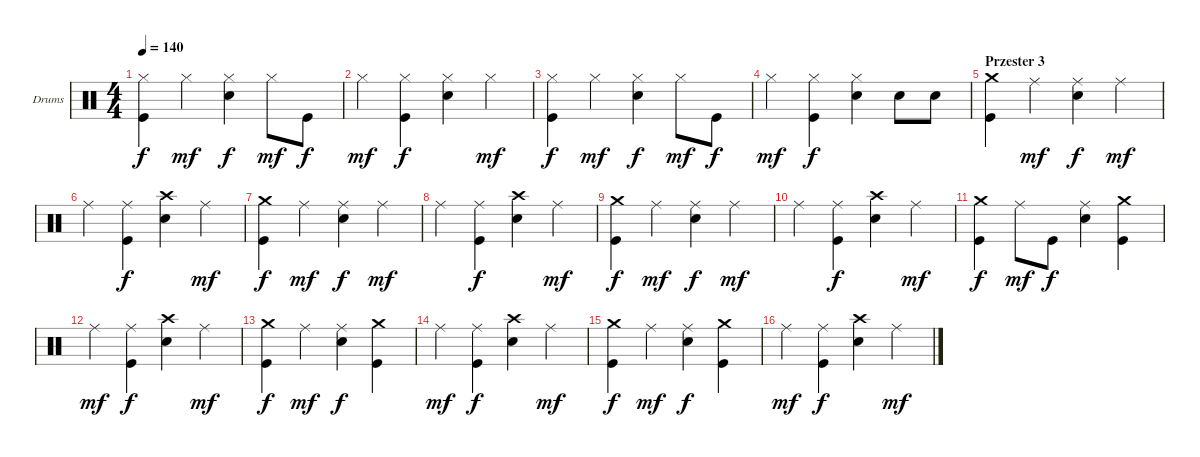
\bracketExtendMode groupsimilarinstruments
\firstSystemTrackNameOrientation horizontal
\otherSystemsTrackNameOrientation horizontal
\track ("Drumkit" "Drums") {instrument percussion}
\staff {score}
\articulation defaults
\ts (4 4)
\tempo 140
\clef neutral
\ks c
("Kick (hit)" "Hi-Hat (closed)").4{dy f} "Hi-Hat (closed)".4{dy mf} ("Snare (hit) 2" "Hi-Hat (closed)").4{dy f} "Hi-Hat (closed)".8{dy mf} "Kick (hit)".8{dy f} |
"Hi-Hat (closed)".4{dy mf} ("Kick (hit)" "Hi-Hat (closed)").4{dy f} ("Snare (hit) 2" "Hi-Hat (closed)").4 "Hi-Hat (closed)".4{dy mf} |
("Kick (hit)" "Hi-Hat (closed)").4{dy f} "Hi-Hat (closed)".4{dy mf} ("Snare (hit) 2" "Hi-Hat (closed)").4{dy f} "Hi-Hat (closed)".8{dy mf} "Kick (hit)".8{dy f} |
"Hi-Hat (closed)".4{dy mf} ("Kick (hit)" "Hi-Hat (closed)").4{dy f} ("Snare (hit) 2" "Hi-Hat (closed)").4 "Snare (hit) 2".8 "Snare (hit) 2".8 |
\section ("" "Przester 3")
("Kick (hit)" "Crash medium (hit)").4 "Ride (middle)".4{dy mf} ("Snare (hit) 2" "Ride (middle)").4{dy f} "Ride (middle)".4{dy mf} |
"Ride (middle)".4 ("Kick (hit)" "Ride (middle)").4{dy f} ("Snare (hit) 2" "Crash high (hit)").4 "Ride (middle)".4{dy mf} |
("Kick (hit)" "Crash medium (hit)").4{dy f} "Ride (middle)".4{dy mf} ("Snare (hit) 2" "Ride (middle)").4{dy f} "Ride (middle)".4{dy mf} |
"Ride (middle)".4 ("Kick (hit)" "Ride (middle)").4{dy f} ("Snare (hit) 2" "Crash high (hit)").4 "Ride (middle)".4{dy mf} |
("Kick (hit)" "Crash medium (hit)").4{dy f} "Ride (middle)".4{dy mf} ("Snare (hit) 2" "Ride (middle)").4{dy f} "Ride (middle)".4{dy mf} |
"Ride (middle)".4 ("Kick (hit)" "Ride (middle)").4{dy f} ("Snare (hit) 2" "Crash high (hit)").4 "Ride (middle)".4{dy mf} |
("Kick (hit)" "Crash medium (hit)").4{dy f} "Ride (middle)".8{dy mf} "Kick (hit)".8{dy f} ("Snare (hit) 2" "Ride (middle)").4 ("Kick (hit)" "Crash medium (hit)").4 |
"Ride (middle)".4{dy mf} ("Kick (hit)" "Ride (middle)").4{dy f} ("Snare (hit) 2" "Crash high (hit)").4 "Ride (middle)".4{dy mf} |
("Kick (hit)" "Crash medium (hit)").4{dy f} "Ride (middle)".4{dy mf} ("Snare (hit) 2" "Ride (middle)").4{dy f} ("Kick (hit)" "Crash medium (hit)").4 |
"Ride (middle)".4{dy mf} ("Kick (hit)" "Ride (middle)").4{dy f} ("Snare (hit) 2" "Crash high (hit)").4 "Ride (middle)".4{dy mf} |
("Kick (hit)" "Crash medium (hit)").4{dy f} "Ride (middle)".4{dy mf} ("Snare (hit) 2" "Ride (middle)").4{dy f} ("Kick (hit)" "Crash medium (hit)").4 |
"Ride (middle)".4{dy mf} ("Kick (hit)" "Ride (middle)").4{dy f} ("Snare (hit) 2" "Crash high (hit)").4 "Ride (middle)".4{dy mf}
